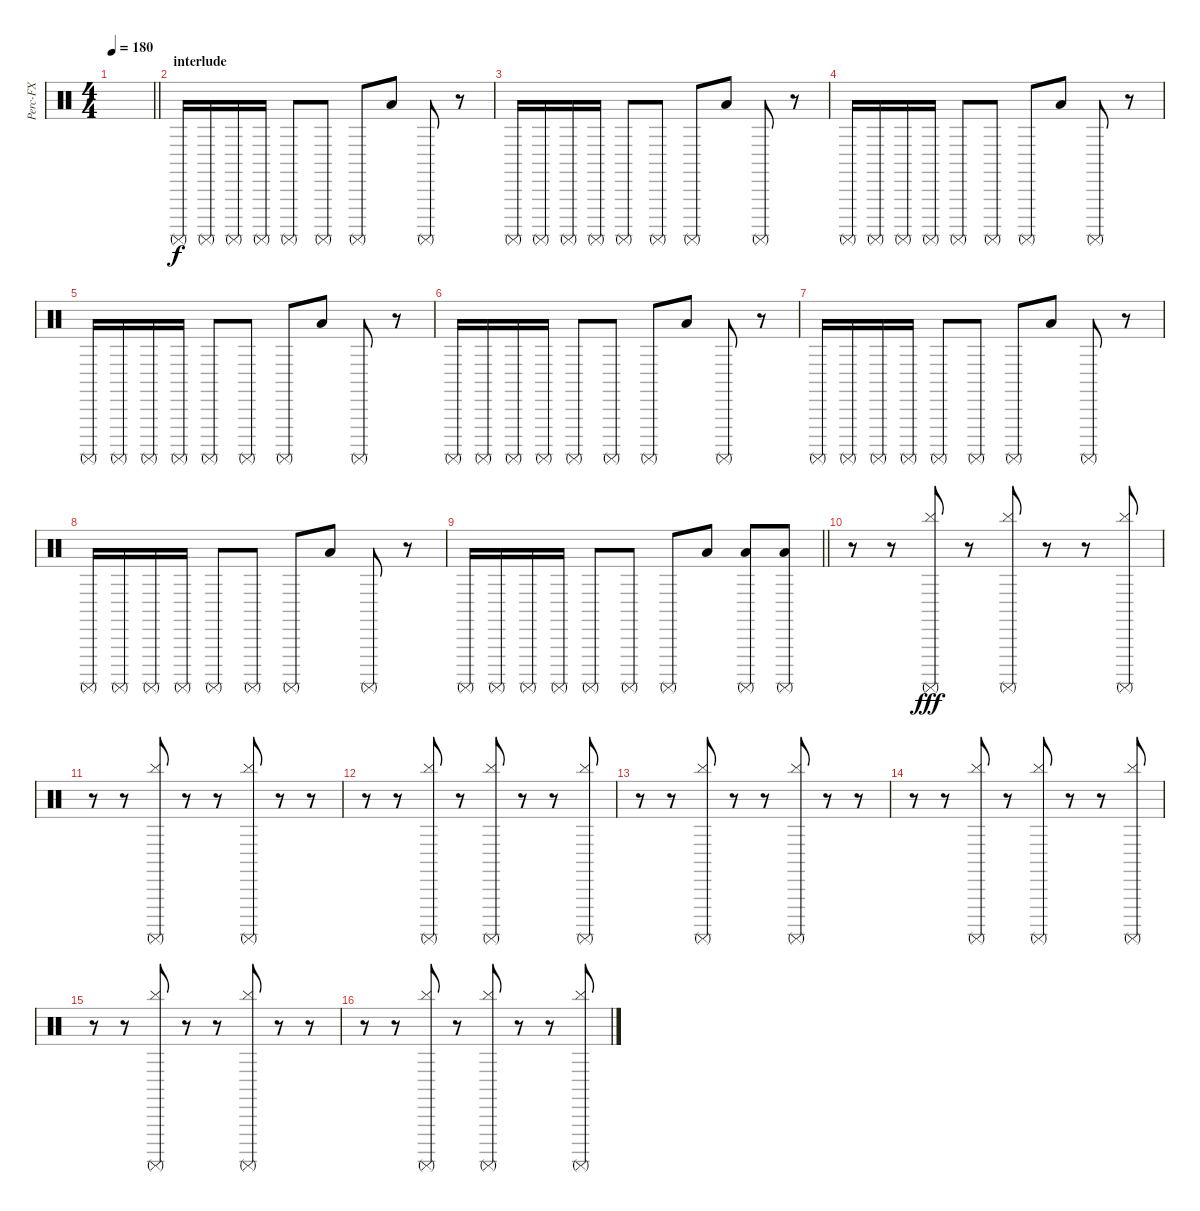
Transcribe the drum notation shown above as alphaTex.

\track ("Perc-FX" "Perc-FX") {instrument percussion}
\staff {score}
\articulation defaults
\ts (4 4)
\tempo 180
\clef neutral
\barLineRight lightlight
\ks c
|
\section ("" "interlude")
"Surdo (mute)".16{dy f} "Surdo (mute)".16 "Surdo (mute)".16 "Surdo (mute)".16 "Surdo (mute)".8 "Surdo (mute)".8 "Surdo (mute)".8 "Low Floor Tom (hit)".8 "Surdo (mute)".8 r.8 |
"Surdo (mute)".16 "Surdo (mute)".16 "Surdo (mute)".16 "Surdo (mute)".16 "Surdo (mute)".8 "Surdo (mute)".8 "Surdo (mute)".8 "Low Floor Tom (hit)".8 "Surdo (mute)".8 r.8 |
"Surdo (mute)".16 "Surdo (mute)".16 "Surdo (mute)".16 "Surdo (mute)".16 "Surdo (mute)".8 "Surdo (mute)".8 "Surdo (mute)".8 "Low Floor Tom (hit)".8 "Surdo (mute)".8 r.8 |
"Surdo (mute)".16 "Surdo (mute)".16 "Surdo (mute)".16 "Surdo (mute)".16 "Surdo (mute)".8 "Surdo (mute)".8 "Surdo (mute)".8 "Low Floor Tom (hit)".8 "Surdo (mute)".8 r.8 |
"Surdo (mute)".16 "Surdo (mute)".16 "Surdo (mute)".16 "Surdo (mute)".16 "Surdo (mute)".8 "Surdo (mute)".8 "Surdo (mute)".8 "Low Floor Tom (hit)".8 "Surdo (mute)".8 r.8 |
"Surdo (mute)".16 "Surdo (mute)".16 "Surdo (mute)".16 "Surdo (mute)".16 "Surdo (mute)".8 "Surdo (mute)".8 "Surdo (mute)".8 "Low Floor Tom (hit)".8 "Surdo (mute)".8 r.8 |
"Surdo (mute)".16 "Surdo (mute)".16 "Surdo (mute)".16 "Surdo (mute)".16 "Surdo (mute)".8 "Surdo (mute)".8 "Surdo (mute)".8 "Low Floor Tom (hit)".8 "Surdo (mute)".8 r.8 |
\barLineRight lightlight "Surdo (mute)".16 "Surdo (mute)".16 "Surdo (mute)".16 "Surdo (mute)".16 "Surdo (mute)".8 "Surdo (mute)".8 "Surdo (mute)".8 "Low Floor Tom (hit)".8
("Surdo (mute)" "Low Floor Tom (hit)").8 ("Surdo (mute)" "Low Floor Tom (hit)").8 |
\section ("" "")
r.8 r.8 ("Cymbal (hit)" "Surdo (mute)").8{dy fff} r.8 ("Cymbal (hit)" "Surdo (mute)").8 r.8 r.8 ("Cymbal (hit)" "Surdo (mute)").8 |
r.8 r.8 ("Cymbal (hit)" "Surdo (mute)").8 r.8 r.8 ("Cymbal (hit)" "Surdo (mute)").8 r.8 r.8 |
r.8 r.8 ("Cymbal (hit)" "Surdo (mute)").8 r.8 ("Cymbal (hit)" "Surdo (mute)").8 r.8 r.8 ("Cymbal (hit)" "Surdo (mute)").8 |
r.8 r.8 ("Cymbal (hit)" "Surdo (mute)").8 r.8 r.8 ("Cymbal (hit)" "Surdo (mute)").8 r.8 r.8 |
r.8 r.8 ("Cymbal (hit)" "Surdo (mute)").8 r.8 ("Cymbal (hit)" "Surdo (mute)").8 r.8 r.8 ("Cymbal (hit)" "Surdo (mute)").8 |
r.8 r.8 ("Cymbal (hit)" "Surdo (mute)").8 r.8 r.8 ("Cymbal (hit)" "Surdo (mute)").8 r.8 r.8 |
r.8 r.8 ("Cymbal (hit)" "Surdo (mute)").8 r.8 ("Cymbal (hit)" "Surdo (mute)").8 r.8 r.8 ("Cymbal (hit)" "Surdo (mute)").8
